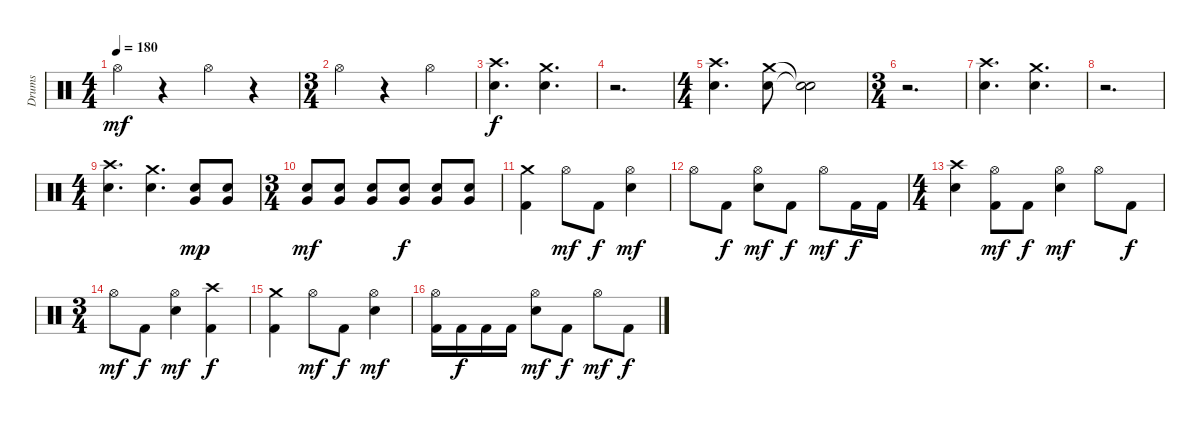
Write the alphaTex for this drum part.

\track ("Drums" "Drums") {instrument percussion}
\staff {score}
\articulation defaults
\ts (4 4)
\tempo 180
\clef neutral
\ks c "Hi-Hat (open)".4{dy mf}
r.4 "Hi-Hat (open)".4 r.4 |
\ts (3 4)
"Hi-Hat (open)".4 r.4 "Hi-Hat (open)".4 |
("Crash high (hit)" "Electric Snare (hit)").4{d dy f} ("Crash medium (hit)" "Electric Snare (hit)").4{d} |
r.2{d} |
\ts (4 4)
("Crash high (hit)" "Electric Snare (hit)").4{d} ("Crash medium (hit)" "Electric Snare (hit)").8 ("Snare (hit)"{t} "Snare (hit)"{t}).2 |
\ts (3 4)
r.2{d} |
("Crash high (hit)" "Electric Snare (hit)").4{d} ("Crash medium (hit)" "Electric Snare (hit)").4{d} |
r.2{d} |
\ts (4 4)
("Crash high (hit)" "Electric Snare (hit)").4{d} ("Crash medium (hit)" "Electric Snare (hit)").4{d} ("Very Low Tom (hit)" "Electric Snare (hit)").8{dy mp} ("Very Low Tom (hit)" "Electric Snare (hit)").8 |
\ts (3 4)
("Very Low Tom (hit)" "Electric Snare (hit)").8{dy mf} ("Very Low Tom (hit)" "Electric Snare (hit)").8 ("Very Low Tom (hit)" "Electric Snare (hit)").8 ("Very Low Tom (hit)" "Electric Snare (hit)").8{dy f} ("Very Low Tom (hit)" "Electric Snare (hit)").8 ("Very Low Tom (hit)" "Electric Snare (hit)").8 |
("Kick (hit) 2" "Crash medium (hit)").4 "Hi-Hat (open)".8{dy mf} "Kick (hit) 2".8{dy f} ("Hi-Hat (open)" "Electric Snare (hit)").4{dy mf} |
"Hi-Hat (open)".8 "Kick (hit) 2".8{dy f} ("Hi-Hat (open)" "Electric Snare (hit)").8{dy mf} "Kick (hit) 2".8{dy f} "Hi-Hat (open)".8{dy mf} "Kick (hit) 2".16{dy f} "Kick (hit) 2".16 |
\ts (4 4)
("Crash high (hit)" "Electric Snare (hit)").4 ("Kick (hit) 2" "Hi-Hat (open)").8{dy mf} "Kick (hit) 2".8{dy f} ("Hi-Hat (open)" "Electric Snare (hit)").4{dy mf} "Hi-Hat (open)".8 "Kick (hit) 2".8{dy f} |
\ts (3 4)
"Hi-Hat (open)".8{dy mf} "Kick (hit) 2".8{dy f} ("Hi-Hat (open)" "Electric Snare (hit)").4{dy mf} ("Kick (hit) 2" "Crash high (hit)").4{dy f} |
("Kick (hit) 2" "Crash medium (hit)").4 "Hi-Hat (open)".8{dy mf} "Kick (hit) 2".8{dy f} ("Hi-Hat (open)" "Electric Snare (hit)").4{dy mf} |
("Kick (hit) 2" "Hi-Hat (open)").16 "Kick (hit) 2".16{dy f} "Kick (hit) 2".16 "Kick (hit) 2".16 ("Hi-Hat (open)" "Electric Snare (hit)").8{dy mf} "Kick (hit) 2".8{dy f} "Hi-Hat (open)".8{dy mf} "Kick (hit) 2".8{dy f}
